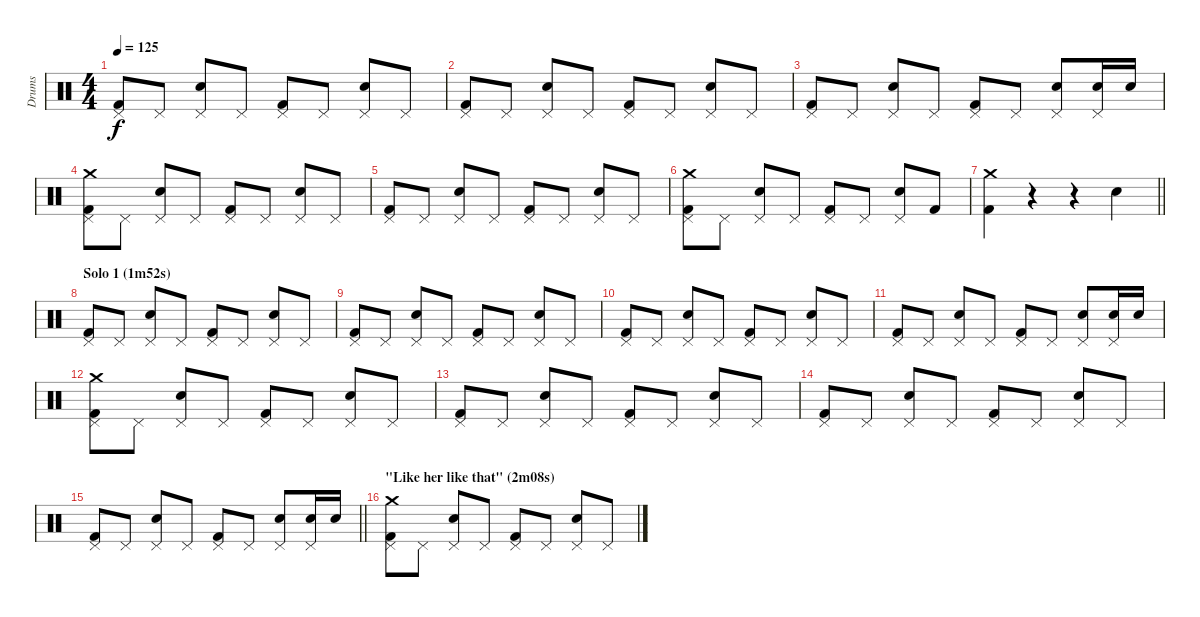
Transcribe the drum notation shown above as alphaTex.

\track ("Drums" "Drums") {instrument percussion}
\staff {score}
\articulation defaults
\ts (4 4)
\tempo 125
\clef neutral
\ks c
("Pedal Hi-Hat (hit)" "Kick (hit) 2").8{dy f} "Pedal Hi-Hat (hit)".8 ("Pedal Hi-Hat (hit)" "Electric Snare (hit)").8 "Pedal Hi-Hat (hit)".8 ("Pedal Hi-Hat (hit)" "Kick (hit) 2").8 "Pedal Hi-Hat (hit)".8 ("Pedal Hi-Hat (hit)" "Electric Snare (hit)").8 "Pedal Hi-Hat (hit)".8 |
("Pedal Hi-Hat (hit)" "Kick (hit) 2").8 "Pedal Hi-Hat (hit)".8 ("Pedal Hi-Hat (hit)" "Electric Snare (hit)").8 "Pedal Hi-Hat (hit)".8 ("Pedal Hi-Hat (hit)" "Kick (hit) 2").8 "Pedal Hi-Hat (hit)".8 ("Pedal Hi-Hat (hit)" "Electric Snare (hit)").8 "Pedal Hi-Hat (hit)".8 |
("Pedal Hi-Hat (hit)" "Kick (hit) 2").8 "Pedal Hi-Hat (hit)".8 ("Pedal Hi-Hat (hit)" "Electric Snare (hit)").8 "Pedal Hi-Hat (hit)".8 ("Pedal Hi-Hat (hit)" "Kick (hit) 2").8 "Pedal Hi-Hat (hit)".8 ("Pedal Hi-Hat (hit)" "Electric Snare (hit)").8 ("Pedal Hi-Hat (hit)" "Electric Snare (hit)").16 "Electric Snare (hit)".16 |
("Pedal Hi-Hat (hit)" "Crash medium (hit)" "Kick (hit) 2").8 "Pedal Hi-Hat (hit)".8 ("Pedal Hi-Hat (hit)" "Electric Snare (hit)").8 "Pedal Hi-Hat (hit)".8 ("Pedal Hi-Hat (hit)" "Kick (hit) 2").8 "Pedal Hi-Hat (hit)".8 ("Pedal Hi-Hat (hit)" "Electric Snare (hit)").8 "Pedal Hi-Hat (hit)".8 |
("Pedal Hi-Hat (hit)" "Kick (hit) 2").8 "Pedal Hi-Hat (hit)".8 ("Pedal Hi-Hat (hit)" "Electric Snare (hit)").8 "Pedal Hi-Hat (hit)".8 ("Pedal Hi-Hat (hit)" "Kick (hit) 2").8 "Pedal Hi-Hat (hit)".8 ("Pedal Hi-Hat (hit)" "Electric Snare (hit)").8 "Pedal Hi-Hat (hit)".8 |
("Pedal Hi-Hat (hit)" "Crash medium (hit)" "Kick (hit) 2").8 "Pedal Hi-Hat (hit)".8 ("Pedal Hi-Hat (hit)" "Electric Snare (hit)").8 "Pedal Hi-Hat (hit)".8 ("Pedal Hi-Hat (hit)" "Kick (hit) 2").8 "Pedal Hi-Hat (hit)".8 ("Pedal Hi-Hat (hit)" "Electric Snare (hit)").8 "Kick (hit) 2".8 |
\barLineRight lightlight
("Crash medium (hit)" "Kick (hit) 2").4 r.4 r.4 "Electric Snare (hit)".4 |
\section ("" "Solo 1 (1m52s)")
("Pedal Hi-Hat (hit)" "Kick (hit) 2").8 "Pedal Hi-Hat (hit)".8 ("Pedal Hi-Hat (hit)" "Electric Snare (hit)").8 "Pedal Hi-Hat (hit)".8 ("Pedal Hi-Hat (hit)" "Kick (hit) 2").8 "Pedal Hi-Hat (hit)".8 ("Pedal Hi-Hat (hit)" "Electric Snare (hit)").8 "Pedal Hi-Hat (hit)".8 |
("Pedal Hi-Hat (hit)" "Kick (hit) 2").8 "Pedal Hi-Hat (hit)".8 ("Pedal Hi-Hat (hit)" "Electric Snare (hit)").8 "Pedal Hi-Hat (hit)".8 ("Pedal Hi-Hat (hit)" "Kick (hit) 2").8 "Pedal Hi-Hat (hit)".8 ("Pedal Hi-Hat (hit)" "Electric Snare (hit)").8 "Pedal Hi-Hat (hit)".8 |
("Pedal Hi-Hat (hit)" "Kick (hit) 2").8 "Pedal Hi-Hat (hit)".8 ("Pedal Hi-Hat (hit)" "Electric Snare (hit)").8 "Pedal Hi-Hat (hit)".8 ("Pedal Hi-Hat (hit)" "Kick (hit) 2").8 "Pedal Hi-Hat (hit)".8 ("Pedal Hi-Hat (hit)" "Electric Snare (hit)").8 "Pedal Hi-Hat (hit)".8 |
("Pedal Hi-Hat (hit)" "Kick (hit) 2").8 "Pedal Hi-Hat (hit)".8 ("Pedal Hi-Hat (hit)" "Electric Snare (hit)").8 "Pedal Hi-Hat (hit)".8 ("Pedal Hi-Hat (hit)" "Kick (hit) 2").8 "Pedal Hi-Hat (hit)".8 ("Pedal Hi-Hat (hit)" "Electric Snare (hit)").8 ("Pedal Hi-Hat (hit)" "Electric Snare (hit)").16 "Electric Snare (hit)".16 |
("Pedal Hi-Hat (hit)" "Crash medium (hit)" "Kick (hit) 2").8 "Pedal Hi-Hat (hit)".8 ("Pedal Hi-Hat (hit)" "Electric Snare (hit)").8 "Pedal Hi-Hat (hit)".8 ("Pedal Hi-Hat (hit)" "Kick (hit) 2").8 "Pedal Hi-Hat (hit)".8 ("Pedal Hi-Hat (hit)" "Electric Snare (hit)").8 "Pedal Hi-Hat (hit)".8 |
("Pedal Hi-Hat (hit)" "Kick (hit) 2").8 "Pedal Hi-Hat (hit)".8 ("Pedal Hi-Hat (hit)" "Electric Snare (hit)").8 "Pedal Hi-Hat (hit)".8 ("Pedal Hi-Hat (hit)" "Kick (hit) 2").8 "Pedal Hi-Hat (hit)".8 ("Pedal Hi-Hat (hit)" "Electric Snare (hit)").8 "Pedal Hi-Hat (hit)".8 |
("Pedal Hi-Hat (hit)" "Kick (hit) 2").8 "Pedal Hi-Hat (hit)".8 ("Pedal Hi-Hat (hit)" "Electric Snare (hit)").8 "Pedal Hi-Hat (hit)".8 ("Pedal Hi-Hat (hit)" "Kick (hit) 2").8 "Pedal Hi-Hat (hit)".8 ("Pedal Hi-Hat (hit)" "Electric Snare (hit)").8 "Pedal Hi-Hat (hit)".8 |
\barLineRight lightlight
("Pedal Hi-Hat (hit)" "Kick (hit) 2").8 "Pedal Hi-Hat (hit)".8 ("Pedal Hi-Hat (hit)" "Electric Snare (hit)").8 "Pedal Hi-Hat (hit)".8 ("Pedal Hi-Hat (hit)" "Kick (hit) 2").8 "Pedal Hi-Hat (hit)".8 ("Pedal Hi-Hat (hit)" "Electric Snare (hit)").8 ("Pedal Hi-Hat (hit)" "Electric Snare (hit)").16 "Electric Snare (hit)".16 |
\section ("" "\"Like her like that\" (2m08s)")
("Pedal Hi-Hat (hit)" "Crash medium (hit)" "Kick (hit) 2").8 "Pedal Hi-Hat (hit)".8 ("Pedal Hi-Hat (hit)" "Electric Snare (hit)").8 "Pedal Hi-Hat (hit)".8 ("Pedal Hi-Hat (hit)" "Kick (hit) 2").8 "Pedal Hi-Hat (hit)".8 ("Pedal Hi-Hat (hit)" "Electric Snare (hit)").8 "Pedal Hi-Hat (hit)".8
